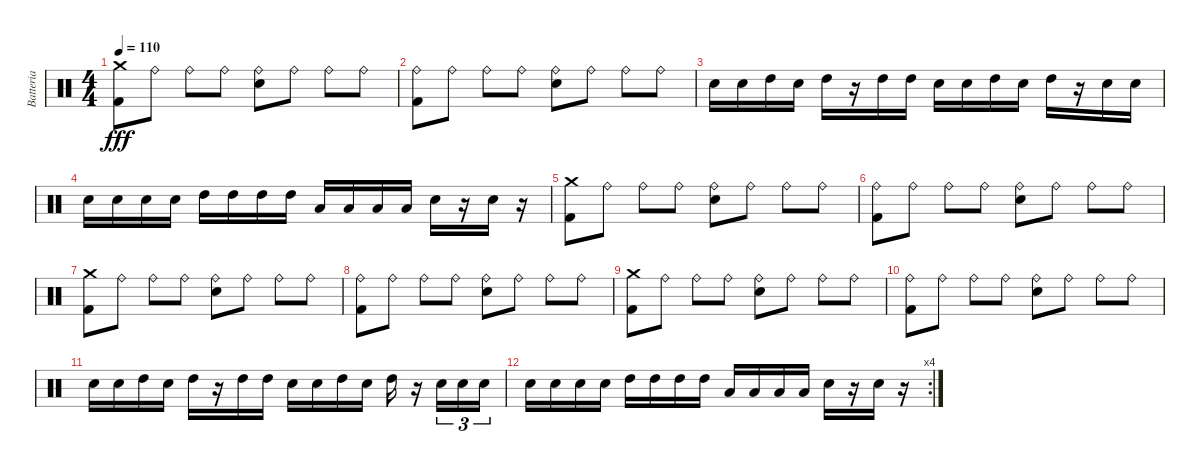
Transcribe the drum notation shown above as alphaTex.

\track ("Batteria" "Batteria") {instrument percussion}
\staff {score}
\articulation defaults
\ts (4 4)
\tempo 110
\clef neutral
\ks c
("Crash medium (hit)" "Kick (hit) 2").8{dy fff} "Ride (bell)".8 "Ride (bell)".8 "Ride (bell)".8 ("Ride (bell)" "Electric Snare (hit)").8 "Ride (bell)".8 "Ride (bell)".8 "Ride (bell)".8 |
("Ride (bell)" "Kick (hit) 2").8 "Ride (bell)".8 "Ride (bell)".8 "Ride (bell)".8 ("Ride (bell)" "Electric Snare (hit)").8 "Ride (bell)".8 "Ride (bell)".8 "Ride (bell)".8 |
"Electric Snare (hit)".16 "Electric Snare (hit)".16 "High Tom (hit)".16 "Electric Snare (hit)".16 "High Tom (hit)".16 r.16 "High Tom (hit)".16 "High Tom (hit)".16 "Electric Snare (hit)".16 "Electric Snare (hit)".16 "High Tom (hit)".16 "Electric Snare (hit)".16 "High Tom (hit)".16 r.16 "Electric Snare (hit)".16 "Electric Snare (hit)".16 |
"Electric Snare (hit)".16 "Electric Snare (hit)".16 "Electric Snare (hit)".16 "Electric Snare (hit)".16 "High Tom (hit)".16 "High Tom (hit)".16 "High Tom (hit)".16 "High Tom (hit)".16 "Low Tom (hit)".16 "Low Tom (hit)".16 "Low Tom (hit)".16 "Low Tom (hit)".16 "Electric Snare (hit)".16 r.16 "Electric Snare (hit)".16 r.16 |
("Crash medium (hit)" "Kick (hit) 2").8 "Ride (bell)".8 "Ride (bell)".8 "Ride (bell)".8 ("Ride (bell)" "Electric Snare (hit)").8 "Ride (bell)".8 "Ride (bell)".8 "Ride (bell)".8 |
("Ride (bell)" "Kick (hit) 2").8 "Ride (bell)".8 "Ride (bell)".8 "Ride (bell)".8 ("Ride (bell)" "Electric Snare (hit)").8 "Ride (bell)".8 "Ride (bell)".8 "Ride (bell)".8 |
("Crash medium (hit)" "Kick (hit) 2").8 "Ride (bell)".8 "Ride (bell)".8 "Ride (bell)".8 ("Ride (bell)" "Electric Snare (hit)").8 "Ride (bell)".8 "Ride (bell)".8 "Ride (bell)".8 |
("Ride (bell)" "Kick (hit) 2").8 "Ride (bell)".8 "Ride (bell)".8 "Ride (bell)".8 ("Ride (bell)" "Electric Snare (hit)").8 "Ride (bell)".8 "Ride (bell)".8 "Ride (bell)".8 |
("Crash medium (hit)" "Kick (hit) 2").8 "Ride (bell)".8 "Ride (bell)".8 "Ride (bell)".8 ("Ride (bell)" "Electric Snare (hit)").8 "Ride (bell)".8 "Ride (bell)".8 "Ride (bell)".8 |
("Ride (bell)" "Kick (hit) 2").8 "Ride (bell)".8 "Ride (bell)".8 "Ride (bell)".8 ("Ride (bell)" "Electric Snare (hit)").8 "Ride (bell)".8 "Ride (bell)".8 "Ride (bell)".8 |
"Electric Snare (hit)".16 "Electric Snare (hit)".16 "High Tom (hit)".16 "Electric Snare (hit)".16 "High Tom (hit)".16 r.16 "High Tom (hit)".16 "High Tom (hit)".16 "Electric Snare (hit)".16 "Electric Snare (hit)".16 "High Tom (hit)".16 "Electric Snare (hit)".16 "High Tom (hit)".16 r.16 "Electric Snare (hit)".16{tu (3 2)} "Electric Snare (hit)".16{tu (3 2)} "Electric Snare (hit)".16{tu (3 2)} |
\rc 4 "Electric Snare (hit)".16 "Electric Snare (hit)".16 "Electric Snare (hit)".16 "Electric Snare (hit)".16 "High Tom (hit)".16 "High Tom (hit)".16 "High Tom (hit)".16 "High Tom (hit)".16 "Low Tom (hit)".16 "Low Tom (hit)".16 "Low Tom (hit)".16 "Low Tom (hit)".16 "Electric Snare (hit)".16
r.16 "Electric Snare (hit)".16 r.16
